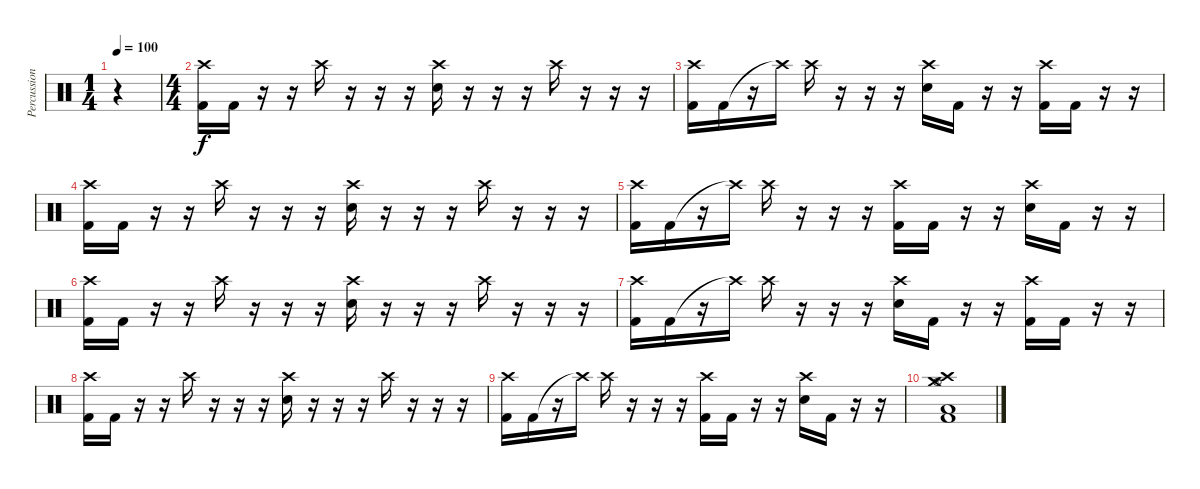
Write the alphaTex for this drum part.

\track ("Percussion" "Percussion") {instrument percussion}
\staff {score}
\articulation defaults
\ts (1 4)
\tempo 100
\clef neutral
\ks c
r.4{dy f} |
\ts (4 4)
("Crash high (hit)" "Kick (hit) 2").16 "Kick (hit) 2".16 r.16 r.16 "Crash high (hit)".16 r.16 r.16 r.16 ("Crash high (hit)" "Snare (hit) 2").16 r.16 r.16 r.16 "Crash high (hit)".16 r.16 r.16 r.16 |
("Crash high (hit)" "Kick (hit) 2").16 "Kick (hit) 2".16 r.16 "Crash high (hit)"{t}.16 "Crash high (hit)".16 r.16 r.16 r.16 ("Crash high (hit)" "Snare (hit) 2").16 "Kick (hit) 2".16 r.16 r.16 ("Crash high (hit)" "Kick (hit) 2").16 "Kick (hit) 2".16 r.16 r.16 |
("Crash high (hit)" "Kick (hit) 2").16 "Kick (hit) 2".16 r.16 r.16 "Crash high (hit)".16 r.16 r.16 r.16 ("Crash high (hit)" "Snare (hit) 2").16 r.16 r.16 r.16 "Crash high (hit)".16 r.16 r.16 r.16 |
("Crash high (hit)" "Kick (hit) 2").16 "Kick (hit) 2".16 r.16 "Crash high (hit)"{t}.16 "Crash high (hit)".16 r.16 r.16 r.16 ("Crash high (hit)" "Kick (hit) 2").16 "Kick (hit) 2".16 r.16 r.16 ("Crash high (hit)" "Snare (hit) 2").16 "Kick (hit) 2".16 r.16 r.16 |
("Crash high (hit)" "Kick (hit) 2").16 "Kick (hit) 2".16 r.16 r.16 "Crash high (hit)".16 r.16 r.16 r.16 ("Crash high (hit)" "Snare (hit) 2").16 r.16 r.16 r.16 "Crash high (hit)".16 r.16 r.16 r.16 |
("Crash high (hit)" "Kick (hit) 2").16 "Kick (hit) 2".16 r.16 "Crash high (hit)"{t}.16 "Crash high (hit)".16 r.16 r.16 r.16 ("Crash high (hit)" "Snare (hit) 2").16 "Kick (hit) 2".16 r.16 r.16 ("Crash high (hit)" "Kick (hit) 2").16 "Kick (hit) 2".16 r.16 r.16 |
("Crash high (hit)" "Kick (hit) 2").16 "Kick (hit) 2".16 r.16 r.16 "Crash high (hit)".16 r.16 r.16 r.16 ("Crash high (hit)" "Snare (hit) 2").16 r.16 r.16 r.16 "Crash high (hit)".16 r.16 r.16 r.16 |
("Crash high (hit)" "Kick (hit) 2").16 "Kick (hit) 2".16 r.16 "Crash high (hit)"{t}.16 "Crash high (hit)".16 r.16 r.16 r.16 ("Crash high (hit)" "Kick (hit) 2").16 "Kick (hit) 2".16 r.16 r.16 ("Crash high (hit)" "Snare (hit) 2").16 "Kick (hit) 2".16 r.16 r.16 |
("Kick (hit) 2" "Low Floor Tom (hit)" "Hi-Hat (open)" "Crash high (hit)" "Crash medium (hit)").1
